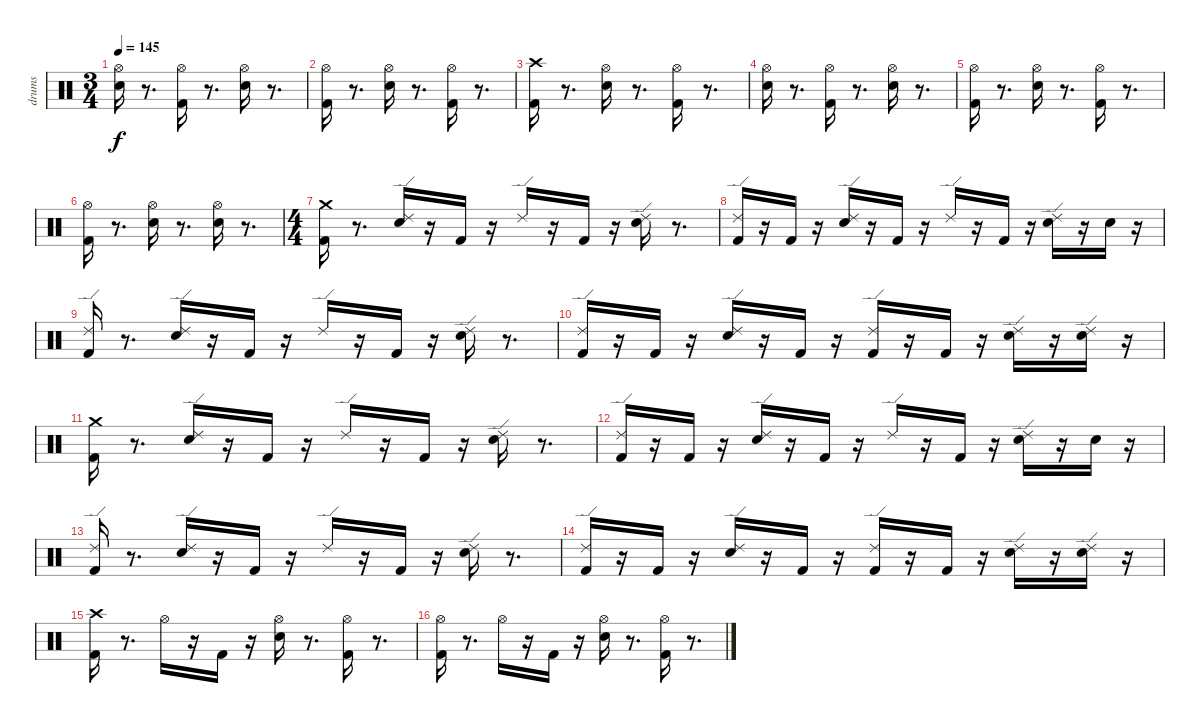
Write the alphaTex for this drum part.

\track ("drums" "drums") {instrument percussion}
\staff {score}
\articulation defaults
\ts (3 4)
\tempo 145
\clef neutral
\ks c
("Hi-Hat (open)" "Snare (hit) 2").16{dy f} r.8{d} ("Hi-Hat (open)" "Kick (hit) 2").16 r.8{d} ("Hi-Hat (open)" "Snare (hit) 2").16 r.8{d} |
("Hi-Hat (open)" "Kick (hit) 2").16 r.8{d} ("Hi-Hat (open)" "Snare (hit) 2").16 r.8{d} ("Hi-Hat (open)" "Kick (hit) 2").16 r.8{d} |
("Crash high (hit)" "Kick (hit) 2").16 r.8{d} ("Hi-Hat (open)" "Snare (hit) 2").16 r.8{d} ("Hi-Hat (open)" "Kick (hit) 2").16 r.8{d} |
("Hi-Hat (open)" "Snare (hit) 2").16 r.8{d} ("Hi-Hat (open)" "Kick (hit) 2").16 r.8{d} ("Hi-Hat (open)" "Snare (hit) 2").16 r.8{d} |
("Hi-Hat (open)" "Kick (hit) 2").16 r.8{d} ("Hi-Hat (open)" "Snare (hit) 2").16 r.8{d} ("Hi-Hat (open)" "Kick (hit) 2").16 r.8{d} |
("Hi-Hat (open)" "Kick (hit) 2").16 r.8{d} ("Hi-Hat (open)" "Snare (hit) 2").16 r.8{d} ("Hi-Hat (open)" "Snare (hit) 2").16 r.8{d} |
\ts (4 4)
("Crash medium (hit)" "Kick (hit) 2").16 r.8{d} ("Ride (edge) 2" "Snare (hit) 2").16 r.16 "Kick (hit) 2".16 r.16 "Ride (edge) 2".16 r.16 "Kick (hit) 2".16 r.16 ("Ride (edge) 2" "Snare (hit) 2").16 r.8{d} |
("Ride (edge) 2" "Kick (hit) 2").16 r.16 "Kick (hit) 2".16 r.16 ("Ride (edge) 2" "Snare (hit) 2").16 r.16 "Kick (hit) 2".16 r.16 "Ride (edge) 2".16 r.16 "Kick (hit) 2".16 r.16 ("Ride (edge) 2" "Snare (hit) 2").16 r.16 "Snare (hit) 2".16 r.16 |
("Ride (edge) 2" "Kick (hit) 2").16 r.8{d} ("Ride (edge) 2" "Snare (hit) 2").16 r.16 "Kick (hit) 2".16 r.16 "Ride (edge) 2".16 r.16 "Kick (hit) 2".16 r.16 ("Ride (edge) 2" "Snare (hit) 2").16 r.8{d} |
("Ride (edge) 2" "Kick (hit) 2").16 r.16 "Kick (hit) 2".16 r.16 ("Ride (edge) 2" "Snare (hit) 2").16 r.16 "Kick (hit) 2".16 r.16 ("Kick (hit) 2" "Ride (edge) 2").16 r.16 "Kick (hit) 2".16 r.16 ("Ride (edge) 2" "Snare (hit) 2").16 r.16 ("Ride (edge) 2" "Snare (hit) 2").16 r.16 |
("Crash medium (hit)" "Kick (hit) 2").16 r.8{d} ("Ride (edge) 2" "Snare (hit) 2").16 r.16 "Kick (hit) 2".16 r.16 "Ride (edge) 2".16 r.16 "Kick (hit) 2".16 r.16 ("Ride (edge) 2" "Snare (hit) 2").16 r.8{d} |
("Ride (edge) 2" "Kick (hit) 2").16 r.16 "Kick (hit) 2".16 r.16 ("Ride (edge) 2" "Snare (hit) 2").16 r.16 "Kick (hit) 2".16 r.16 "Ride (edge) 2".16 r.16 "Kick (hit) 2".16 r.16 ("Ride (edge) 2" "Snare (hit) 2").16 r.16 "Snare (hit) 2".16 r.16 |
("Ride (edge) 2" "Kick (hit) 2").16 r.8{d} ("Ride (edge) 2" "Snare (hit) 2").16 r.16 "Kick (hit) 2".16 r.16 "Ride (edge) 2".16 r.16 "Kick (hit) 2".16 r.16 ("Ride (edge) 2" "Snare (hit) 2").16 r.8{d} |
("Ride (edge) 2" "Kick (hit) 2").16 r.16 "Kick (hit) 2".16 r.16 ("Ride (edge) 2" "Snare (hit) 2").16 r.16 "Kick (hit) 2".16 r.16 ("Kick (hit) 2" "Ride (edge) 2").16 r.16 "Kick (hit) 2".16 r.16 ("Ride (edge) 2" "Snare (hit) 2").16 r.16 ("Ride (edge) 2" "Snare (hit) 2").16 r.16 |
("Crash high (hit)" "Kick (hit) 2").16 r.8{d} "Hi-Hat (open)".16 r.16 "Kick (hit) 2".16 r.16 ("Hi-Hat (open)" "Snare (hit) 2").16 r.8{d} ("Hi-Hat (open)" "Kick (hit) 2").16 r.8{d} |
("Hi-Hat (open)" "Kick (hit) 2").16 r.8{d} "Hi-Hat (open)".16 r.16 "Kick (hit) 2".16 r.16 ("Hi-Hat (open)" "Snare (hit) 2").16 r.8{d} ("Hi-Hat (open)" "Kick (hit) 2").16 r.8{d}
